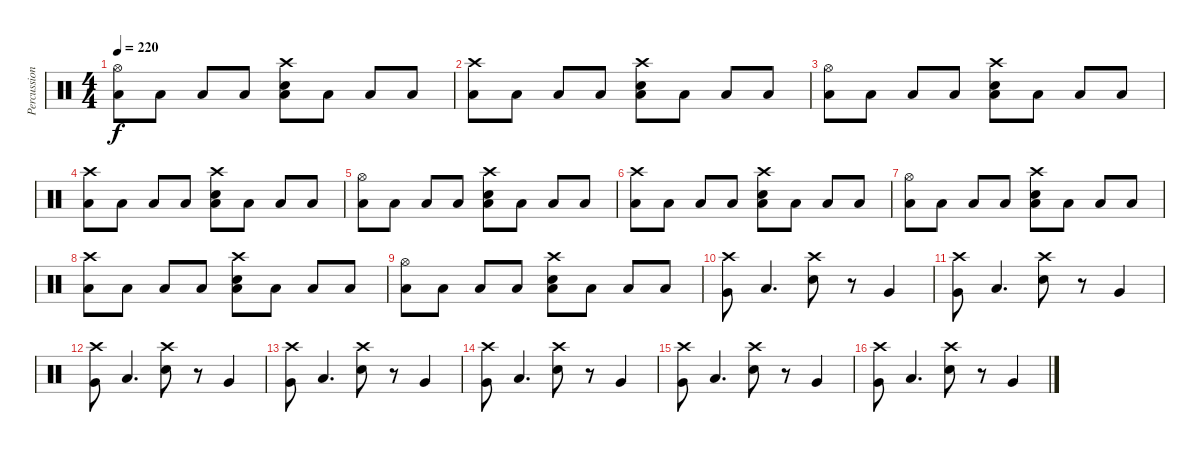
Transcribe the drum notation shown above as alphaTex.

\track ("Percussion" "Percussion") {instrument percussion}
\staff {score}
\articulation defaults
\ts (4 4)
\tempo 220
\clef neutral
\ks c
("Hi-Hat (open)" "Low Floor Tom (hit)").8{dy f} "Low Floor Tom (hit)".8 "Low Floor Tom (hit)".8 "Low Floor Tom (hit)".8 ("Crash high (hit)" "Snare (hit) 2" "Low Floor Tom (hit)").8 "Low Floor Tom (hit)".8 "Low Floor Tom (hit)".8 "Low Floor Tom (hit)".8 |
("Crash high (hit)" "Low Floor Tom (hit)").8 "Low Floor Tom (hit)".8 "Low Floor Tom (hit)".8 "Low Floor Tom (hit)".8 ("Crash high (hit)" "Snare (hit) 2" "Low Floor Tom (hit)").8 "Low Floor Tom (hit)".8 "Low Floor Tom (hit)".8 "Low Floor Tom (hit)".8 |
("Hi-Hat (open)" "Low Floor Tom (hit)").8 "Low Floor Tom (hit)".8 "Low Floor Tom (hit)".8 "Low Floor Tom (hit)".8 ("Crash high (hit)" "Snare (hit) 2" "Low Floor Tom (hit)").8 "Low Floor Tom (hit)".8 "Low Floor Tom (hit)".8 "Low Floor Tom (hit)".8 |
("Crash high (hit)" "Low Floor Tom (hit)").8 "Low Floor Tom (hit)".8 "Low Floor Tom (hit)".8 "Low Floor Tom (hit)".8 ("Crash high (hit)" "Snare (hit) 2" "Low Floor Tom (hit)").8 "Low Floor Tom (hit)".8 "Low Floor Tom (hit)".8 "Low Floor Tom (hit)".8 |
("Hi-Hat (open)" "Low Floor Tom (hit)").8 "Low Floor Tom (hit)".8 "Low Floor Tom (hit)".8 "Low Floor Tom (hit)".8 ("Crash high (hit)" "Snare (hit) 2" "Low Floor Tom (hit)").8 "Low Floor Tom (hit)".8 "Low Floor Tom (hit)".8 "Low Floor Tom (hit)".8 |
("Crash high (hit)" "Low Floor Tom (hit)").8 "Low Floor Tom (hit)".8 "Low Floor Tom (hit)".8 "Low Floor Tom (hit)".8 ("Crash high (hit)" "Snare (hit) 2" "Low Floor Tom (hit)").8 "Low Floor Tom (hit)".8 "Low Floor Tom (hit)".8 "Low Floor Tom (hit)".8 |
("Hi-Hat (open)" "Low Floor Tom (hit)").8 "Low Floor Tom (hit)".8 "Low Floor Tom (hit)".8 "Low Floor Tom (hit)".8 ("Crash high (hit)" "Snare (hit) 2" "Low Floor Tom (hit)").8 "Low Floor Tom (hit)".8 "Low Floor Tom (hit)".8 "Low Floor Tom (hit)".8 |
("Crash high (hit)" "Low Floor Tom (hit)").8 "Low Floor Tom (hit)".8 "Low Floor Tom (hit)".8 "Low Floor Tom (hit)".8 ("Crash high (hit)" "Snare (hit) 2" "Low Floor Tom (hit)").8 "Low Floor Tom (hit)".8 "Low Floor Tom (hit)".8 "Low Floor Tom (hit)".8 |
("Hi-Hat (open)" "Low Floor Tom (hit)").8 "Low Floor Tom (hit)".8 "Low Floor Tom (hit)".8 "Low Floor Tom (hit)".8 ("Crash high (hit)" "Snare (hit) 2" "Low Floor Tom (hit)").8 "Low Floor Tom (hit)".8 "Low Floor Tom (hit)".8 "Low Floor Tom (hit)".8 |
("Crash high (hit)" "Very Low Tom (hit)").8 "Low Floor Tom (hit)".4{d} ("Crash high (hit)" "Snare (hit) 2").8 r.8 "Very Low Tom (hit)".4 |
("Crash high (hit)" "Very Low Tom (hit)").8 "Low Floor Tom (hit)".4{d} ("Crash high (hit)" "Snare (hit) 2").8 r.8 "Very Low Tom (hit)".4 |
("Crash high (hit)" "Very Low Tom (hit)").8 "Low Floor Tom (hit)".4{d} ("Crash high (hit)" "Snare (hit) 2").8 r.8 "Very Low Tom (hit)".4 |
("Crash high (hit)" "Very Low Tom (hit)").8 "Low Floor Tom (hit)".4{d} ("Crash high (hit)" "Snare (hit) 2").8 r.8 "Very Low Tom (hit)".4 |
("Crash high (hit)" "Very Low Tom (hit)").8 "Low Floor Tom (hit)".4{d} ("Crash high (hit)" "Snare (hit) 2").8 r.8 "Very Low Tom (hit)".4 |
("Crash high (hit)" "Very Low Tom (hit)").8 "Low Floor Tom (hit)".4{d} ("Crash high (hit)" "Snare (hit) 2").8 r.8 "Very Low Tom (hit)".4 |
("Crash high (hit)" "Very Low Tom (hit)").8 "Low Floor Tom (hit)".4{d} ("Crash high (hit)" "Snare (hit) 2").8 r.8 "Very Low Tom (hit)".4
